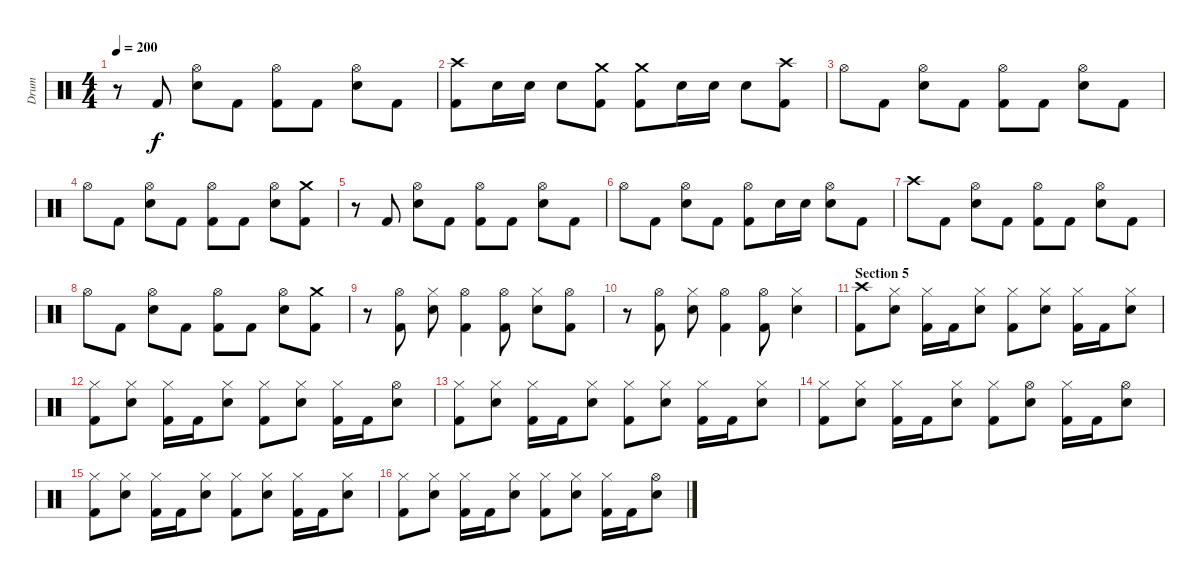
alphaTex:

\track ("Drum" "Drum") {instrument percussion}
\staff {score}
\articulation defaults
\ts (4 4)
\tempo 200
\clef neutral
\ks c
r.8{dy f} "Kick (hit) 2".8 ("Hi-Hat (open)" "Electric Snare (hit)").8 "Kick (hit) 2".8 ("Hi-Hat (open)" "Kick (hit) 2").8 "Kick (hit) 2".8 ("Hi-Hat (open)" "Electric Snare (hit)").8 "Kick (hit) 2".8 |
("Crash high (hit)" "Kick (hit) 2").8 "Electric Snare (hit)".16 "Electric Snare (hit)".16 "Electric Snare (hit)".8 ("Crash medium (hit)" "Kick (hit) 2").8 ("Crash medium (hit)" "Kick (hit) 2").8 "Electric Snare (hit)".16 "Electric Snare (hit)".16 "Electric Snare (hit)".8 ("Crash high (hit)" "Kick (hit) 2").8 |
"Hi-Hat (open)".8 "Kick (hit) 2".8 ("Hi-Hat (open)" "Electric Snare (hit)").8 "Kick (hit) 2".8 ("Hi-Hat (open)" "Kick (hit) 2").8 "Kick (hit) 2".8 ("Hi-Hat (open)" "Electric Snare (hit)").8 "Kick (hit) 2".8 |
"Hi-Hat (open)".8 "Kick (hit) 2".8 ("Hi-Hat (open)" "Electric Snare (hit)").8 "Kick (hit) 2".8 ("Hi-Hat (open)" "Kick (hit) 2").8 "Kick (hit) 2".8 ("Hi-Hat (open)" "Electric Snare (hit)").8 ("Crash medium (hit)" "Kick (hit) 2").8 |
r.8 "Kick (hit) 2".8 ("Hi-Hat (open)" "Electric Snare (hit)").8 "Kick (hit) 2".8 ("Hi-Hat (open)" "Kick (hit) 2").8 "Kick (hit) 2".8 ("Hi-Hat (open)" "Electric Snare (hit)").8 "Kick (hit) 2".8 |
"Hi-Hat (open)".8 "Kick (hit) 2".8 ("Hi-Hat (open)" "Electric Snare (hit)").8 "Kick (hit) 2".8 ("Hi-Hat (open)" "Kick (hit) 2").8 "Electric Snare (hit)".16 "Electric Snare (hit)".16 ("Hi-Hat (open)" "Electric Snare (hit)").8 "Kick (hit) 2".8 |
"Crash high (hit)".8 "Kick (hit) 2".8 ("Hi-Hat (open)" "Electric Snare (hit)").8 "Kick (hit) 2".8 ("Hi-Hat (open)" "Kick (hit) 2").8 "Kick (hit) 2".8 ("Hi-Hat (open)" "Electric Snare (hit)").8 "Kick (hit) 2".8 |
"Hi-Hat (open)".8 "Kick (hit) 2".8 ("Hi-Hat (open)" "Electric Snare (hit)").8 "Kick (hit) 2".8 ("Hi-Hat (open)" "Kick (hit) 2").8 "Kick (hit) 2".8 ("Hi-Hat (open)" "Electric Snare (hit)").8 ("Crash medium (hit)" "Kick (hit) 2").8 |
r.8 ("Hi-Hat (open)" "Kick (hit) 2").8 ("Hi-Hat (closed)" "Electric Snare (hit)").8 ("Hi-Hat (open)" "Kick (hit) 2").4 ("Hi-Hat (open)" "Kick (hit) 2").8 ("Hi-Hat (closed)" "Electric Snare (hit)").8 ("Hi-Hat (open)" "Kick (hit) 2").8 |
r.8 ("Hi-Hat (open)" "Kick (hit) 2").8 ("Hi-Hat (closed)" "Electric Snare (hit)").8 ("Hi-Hat (open)" "Kick (hit) 2").4 ("Hi-Hat (open)" "Kick (hit) 2").8 ("Hi-Hat (closed)" "Electric Snare (hit)").4 |
\section ("" "Section 5")
("Crash high (hit)" "Kick (hit) 2").8 ("Hi-Hat (closed)" "Electric Snare (hit)").8 ("Hi-Hat (closed)" "Kick (hit) 2").16 "Kick (hit) 2".16 ("Hi-Hat (closed)" "Electric Snare (hit)").8 ("Hi-Hat (closed)" "Kick (hit) 2").8 ("Hi-Hat (closed)" "Electric Snare (hit)").8 ("Hi-Hat (closed)" "Kick (hit) 2").16 "Kick (hit) 2".16 ("Hi-Hat (closed)" "Electric Snare (hit)").8 |
("Hi-Hat (closed)" "Kick (hit) 2").8 ("Hi-Hat (closed)" "Electric Snare (hit)").8 ("Hi-Hat (closed)" "Kick (hit) 2").16 "Kick (hit) 2".16 ("Hi-Hat (closed)" "Electric Snare (hit)").8 ("Hi-Hat (closed)" "Kick (hit) 2").8 ("Hi-Hat (closed)" "Electric Snare (hit)").8 ("Hi-Hat (closed)" "Kick (hit) 2").16 "Kick (hit) 2".16 ("Hi-Hat (open)" "Electric Snare (hit)").8 |
("Hi-Hat (closed)" "Kick (hit) 2").8 ("Hi-Hat (closed)" "Electric Snare (hit)").8 ("Hi-Hat (closed)" "Kick (hit) 2").16 "Kick (hit) 2".16 ("Hi-Hat (closed)" "Electric Snare (hit)").8 ("Hi-Hat (closed)" "Kick (hit) 2").8 ("Hi-Hat (closed)" "Electric Snare (hit)").8 ("Hi-Hat (closed)" "Kick (hit) 2").16 "Kick (hit) 2".16 ("Hi-Hat (closed)" "Electric Snare (hit)").8 |
("Hi-Hat (closed)" "Kick (hit) 2").8 ("Hi-Hat (closed)" "Electric Snare (hit)").8 ("Hi-Hat (closed)" "Kick (hit) 2").16 "Kick (hit) 2".16 ("Hi-Hat (closed)" "Electric Snare (hit)").8 ("Hi-Hat (closed)" "Kick (hit) 2").8 ("Hi-Hat (open)" "Electric Snare (hit)").8 ("Hi-Hat (closed)" "Kick (hit) 2").16 "Kick (hit) 2".16 ("Hi-Hat (open)" "Electric Snare (hit)").8 |
("Hi-Hat (closed)" "Kick (hit) 2").8 ("Hi-Hat (closed)" "Electric Snare (hit)").8 ("Hi-Hat (closed)" "Kick (hit) 2").16 "Kick (hit) 2".16 ("Hi-Hat (closed)" "Electric Snare (hit)").8 ("Hi-Hat (closed)" "Kick (hit) 2").8 ("Hi-Hat (closed)" "Electric Snare (hit)").8 ("Hi-Hat (closed)" "Kick (hit) 2").16 "Kick (hit) 2".16 ("Hi-Hat (closed)" "Electric Snare (hit)").8 |
("Hi-Hat (closed)" "Kick (hit) 2").8 ("Hi-Hat (closed)" "Electric Snare (hit)").8 ("Hi-Hat (closed)" "Kick (hit) 2").16 "Kick (hit) 2".16 ("Hi-Hat (closed)" "Electric Snare (hit)").8 ("Hi-Hat (closed)" "Kick (hit) 2").8 ("Hi-Hat (closed)" "Electric Snare (hit)").8 ("Hi-Hat (closed)" "Kick (hit) 2").16 "Kick (hit) 2".16 ("Hi-Hat (open)" "Electric Snare (hit)").8
